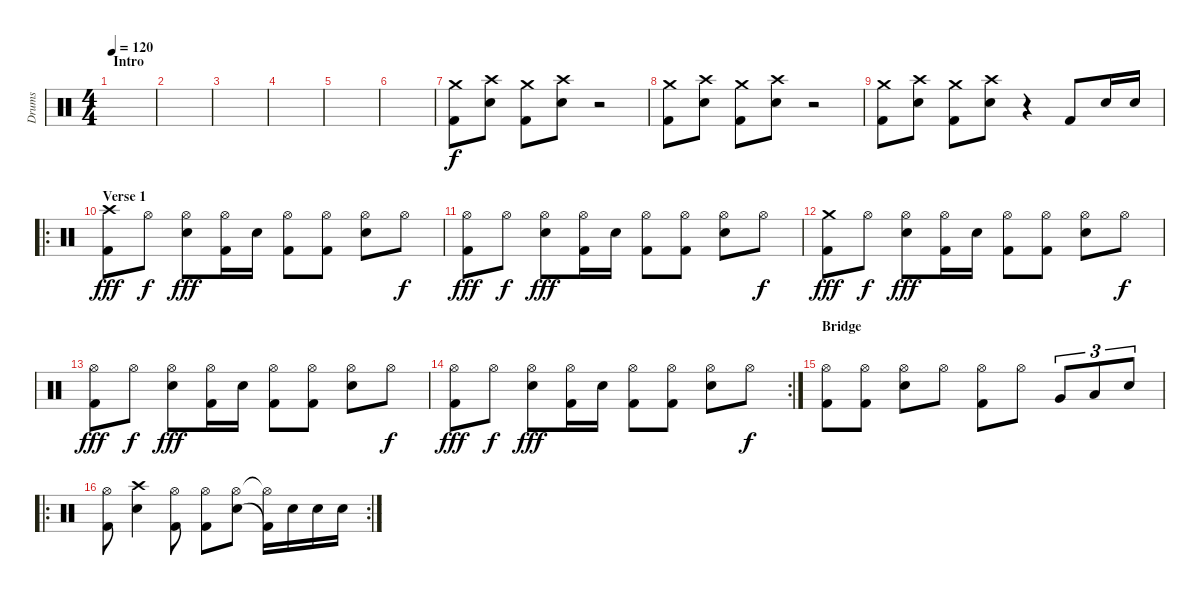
\track ("Drums" "Drums") {instrument percussion}
\staff {score}
\articulation defaults
\ts (4 4)
\section ("" "Intro")
\tempo 120
\clef neutral
\ks c
|
|
|
|
|
|
("Crash medium (hit)" "Kick (hit) 2").8 ("Crash high (hit)" "Electric Snare (hit)").8 ("Crash medium (hit)" "Kick (hit) 2").8 ("Crash high (hit)" "Electric Snare (hit)").8 r.2 |
("Crash medium (hit)" "Kick (hit) 2").8 ("Crash high (hit)" "Electric Snare (hit)").8 ("Crash medium (hit)" "Kick (hit) 2").8 ("Crash high (hit)" "Electric Snare (hit)").8 r.2 |
("Crash medium (hit)" "Kick (hit) 2").8 ("Crash high (hit)" "Electric Snare (hit)").8 ("Crash medium (hit)" "Kick (hit) 2").8 ("Crash high (hit)" "Electric Snare (hit)").8 r.4 "Kick (hit) 2".8 "Electric Snare (hit)".16 "Electric Snare (hit)".16 |
\ro
\section ("" "Verse 1")
("Crash high (hit)" "Kick (hit) 2").8{dy fff} "Hi-Hat (open)".8{dy f} ("Hi-Hat (open)" "Electric Snare (hit)").8{dy fff} ("Hi-Hat (open)" "Kick (hit) 2").16 "Electric Snare (hit)".16 ("Hi-Hat (open)" "Kick (hit) 2").8 ("Hi-Hat (open)" "Kick (hit) 2").8 ("Hi-Hat (open)" "Electric Snare (hit)").8 "Hi-Hat (open)".8{dy f} |
("Hi-Hat (open)" "Kick (hit) 2").8{dy fff} "Hi-Hat (open)".8{dy f} ("Hi-Hat (open)" "Electric Snare (hit)").8{dy fff} ("Hi-Hat (open)" "Kick (hit) 2").16 "Electric Snare (hit)".16 ("Hi-Hat (open)" "Kick (hit) 2").8 ("Hi-Hat (open)" "Kick (hit) 2").8 ("Hi-Hat (open)" "Electric Snare (hit)").8 "Hi-Hat (open)".8{dy f} |
("Crash medium (hit)" "Kick (hit) 2").8{dy fff} "Hi-Hat (open)".8{dy f} ("Hi-Hat (open)" "Electric Snare (hit)").8{dy fff} ("Hi-Hat (open)" "Kick (hit) 2").16 "Electric Snare (hit)".16 ("Hi-Hat (open)" "Kick (hit) 2").8 ("Hi-Hat (open)" "Kick (hit) 2").8 ("Hi-Hat (open)" "Electric Snare (hit)").8 "Hi-Hat (open)".8{dy f} |
("Hi-Hat (open)" "Kick (hit) 2").8{dy fff} "Hi-Hat (open)".8{dy f} ("Hi-Hat (open)" "Electric Snare (hit)").8{dy fff} ("Hi-Hat (open)" "Kick (hit) 2").16 "Electric Snare (hit)".16 ("Hi-Hat (open)" "Kick (hit) 2").8 ("Hi-Hat (open)" "Kick (hit) 2").8 ("Hi-Hat (open)" "Electric Snare (hit)").8 "Hi-Hat (open)".8{dy f} |
\rc 2
("Hi-Hat (open)" "Kick (hit) 2").8{dy fff} "Hi-Hat (open)".8{dy f} ("Hi-Hat (open)" "Electric Snare (hit)").8{dy fff} ("Hi-Hat (open)" "Kick (hit) 2").16 "Electric Snare (hit)".16 ("Hi-Hat (open)" "Kick (hit) 2").8 ("Hi-Hat (open)" "Kick (hit) 2").8 ("Hi-Hat (open)" "Electric Snare (hit)").8 "Hi-Hat (open)".8{dy f} |
\section ("" "Bridge")
("Hi-Hat (open)" "Kick (hit) 2").8 ("Hi-Hat (open)" "Kick (hit) 2").8 ("Hi-Hat (open)" "Electric Snare (hit)").8 "Hi-Hat (open)".8 ("Hi-Hat (open)" "Kick (hit) 2").8 "Hi-Hat (open)".8 "Very Low Tom (hit)".8{tu (3 2)} "Low Floor Tom (hit)".8{tu (3 2)} "Electric Snare (hit)".8{tu (3 2)} |
\ro
\rc 2
("Hi-Hat (open)" "Kick (hit) 2").8 ("Crash high (hit)" "Electric Snare (hit)").4 ("Hi-Hat (open)" "Kick (hit) 2").8 ("Hi-Hat (open)" "Kick (hit) 2").8 ("Hi-Hat (open)" "Electric Snare (hit)").8 ("Hi-Hat (open)"{t} "Kick (hit) 2"{t}).16 "Electric Snare (hit)".16 "Electric Snare (hit)".16 "Electric Snare (hit)".16
